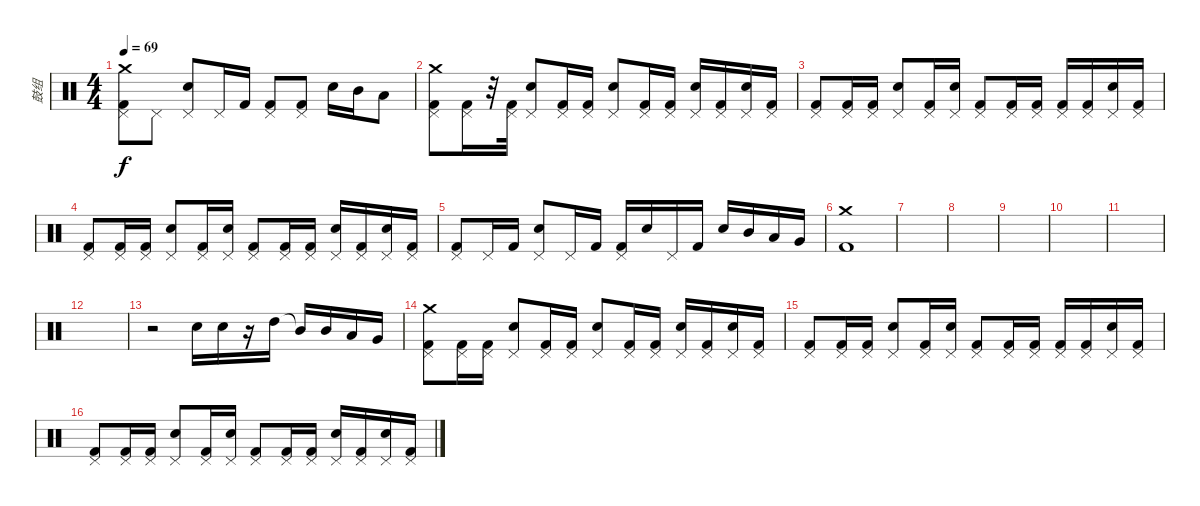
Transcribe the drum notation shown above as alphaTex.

\track ("鼓组" "鼓组") {instrument percussion}
\staff {score}
\articulation defaults
\ts (4 4)
\tempo 69
\clef neutral
\ks c
("Crash medium (hit)" "Kick (hit) 2" "Pedal Hi-Hat (hit)").8{dy f} "Pedal Hi-Hat (hit)".8 ("Snare (hit) 2" "Pedal Hi-Hat (hit)").8 "Pedal Hi-Hat (hit)".16 "Kick (hit) 2".16 ("Kick (hit) 2" "Pedal Hi-Hat (hit)").8 ("Kick (hit) 2" "Pedal Hi-Hat (hit)").8 "Snare (hit) 2".16 "Mid Tom (hit)".16 "Low Tom (hit)".8 |
("Crash medium (hit)" "Kick (hit) 2" "Pedal Hi-Hat (hit)").8 ("Kick (hit) 2" "Pedal Hi-Hat (hit)").16 r.32 ("Kick (hit) 2" "Pedal Hi-Hat (hit)").32 ("Snare (hit) 2" "Pedal Hi-Hat (hit)").8 ("Kick (hit) 2" "Pedal Hi-Hat (hit)").16 ("Kick (hit) 2" "Pedal Hi-Hat (hit)").16 ("Snare (hit) 2" "Pedal Hi-Hat (hit)").8 ("Kick (hit) 2" "Pedal Hi-Hat (hit)").16 ("Kick (hit) 2" "Pedal Hi-Hat (hit)").16 ("Snare (hit) 2" "Pedal Hi-Hat (hit)").16 ("Kick (hit) 2" "Pedal Hi-Hat (hit)").16 ("Snare (hit) 2" "Pedal Hi-Hat (hit)").16 ("Kick (hit) 2" "Pedal Hi-Hat (hit)").16 |
("Kick (hit) 2" "Pedal Hi-Hat (hit)").8 ("Kick (hit) 2" "Pedal Hi-Hat (hit)").16 ("Kick (hit) 2" "Pedal Hi-Hat (hit)").16 ("Snare (hit) 2" "Pedal Hi-Hat (hit)").8 ("Kick (hit) 2" "Pedal Hi-Hat (hit)").16 ("Snare (hit) 2" "Pedal Hi-Hat (hit)").16 ("Kick (hit) 2" "Pedal Hi-Hat (hit)").8 ("Kick (hit) 2" "Pedal Hi-Hat (hit)").16 ("Kick (hit) 2" "Pedal Hi-Hat (hit)").16 ("Kick (hit) 2" "Pedal Hi-Hat (hit)").16 ("Kick (hit) 2" "Pedal Hi-Hat (hit)").16 ("Snare (hit) 2" "Pedal Hi-Hat (hit)").16 ("Kick (hit) 2" "Pedal Hi-Hat (hit)").16 |
("Kick (hit) 2" "Pedal Hi-Hat (hit)").8 ("Kick (hit) 2" "Pedal Hi-Hat (hit)").16 ("Kick (hit) 2" "Pedal Hi-Hat (hit)").16 ("Snare (hit) 2" "Pedal Hi-Hat (hit)").8 ("Kick (hit) 2" "Pedal Hi-Hat (hit)").16 ("Snare (hit) 2" "Pedal Hi-Hat (hit)").16 ("Kick (hit) 2" "Pedal Hi-Hat (hit)").8 ("Kick (hit) 2" "Pedal Hi-Hat (hit)").16 ("Kick (hit) 2" "Pedal Hi-Hat (hit)").16 ("Snare (hit) 2" "Pedal Hi-Hat (hit)").16 ("Kick (hit) 2" "Pedal Hi-Hat (hit)").16 ("Snare (hit) 2" "Pedal Hi-Hat (hit)").16 ("Kick (hit) 2" "Pedal Hi-Hat (hit)").16 |
("Kick (hit) 2" "Pedal Hi-Hat (hit)").8 "Pedal Hi-Hat (hit)".16 "Kick (hit) 2".16 ("Snare (hit) 2" "Pedal Hi-Hat (hit)").8 "Pedal Hi-Hat (hit)".16 "Kick (hit) 2".16 ("Kick (hit) 2" "Pedal Hi-Hat (hit)").16 "Snare (hit) 2".16 "Pedal Hi-Hat (hit)".16 "Kick (hit) 2".16 "Snare (hit) 2".16 "Mid Tom (hit)".16 "Low Tom (hit)".16 "Very Low Tom (hit)".16 |
("Crash medium (hit)" "Kick (hit) 2").1 |
|
|
|
|
|
|
r.2 "Snare (hit) 2".16 "Snare (hit) 2".16 r.16 "High Tom (hit)".16 "Mid Tom (hit)"{t}.16 "Mid Tom (hit)".16 "Low Tom (hit)".16 "Very Low Tom (hit)".16 |
("Crash medium (hit)" "Kick (hit) 2" "Pedal Hi-Hat (hit)").8 ("Kick (hit) 2" "Pedal Hi-Hat (hit)").16 ("Kick (hit) 2" "Pedal Hi-Hat (hit)").16 ("Snare (hit) 2" "Pedal Hi-Hat (hit)").8 ("Kick (hit) 2" "Pedal Hi-Hat (hit)").16 ("Kick (hit) 2" "Pedal Hi-Hat (hit)").16 ("Snare (hit) 2" "Pedal Hi-Hat (hit)").8 ("Kick (hit) 2" "Pedal Hi-Hat (hit)").16 ("Kick (hit) 2" "Pedal Hi-Hat (hit)").16 ("Snare (hit) 2" "Pedal Hi-Hat (hit)").16 ("Kick (hit) 2" "Pedal Hi-Hat (hit)").16 ("Snare (hit) 2" "Pedal Hi-Hat (hit)").16 ("Kick (hit) 2" "Pedal Hi-Hat (hit)").16 |
("Kick (hit) 2" "Pedal Hi-Hat (hit)").8 ("Kick (hit) 2" "Pedal Hi-Hat (hit)").16 ("Kick (hit) 2" "Pedal Hi-Hat (hit)").16 ("Snare (hit) 2" "Pedal Hi-Hat (hit)").8 ("Kick (hit) 2" "Pedal Hi-Hat (hit)").16 ("Snare (hit) 2" "Pedal Hi-Hat (hit)").16 ("Kick (hit) 2" "Pedal Hi-Hat (hit)").8 ("Kick (hit) 2" "Pedal Hi-Hat (hit)").16 ("Kick (hit) 2" "Pedal Hi-Hat (hit)").16 ("Kick (hit) 2" "Pedal Hi-Hat (hit)").16 ("Kick (hit) 2" "Pedal Hi-Hat (hit)").16 ("Snare (hit) 2" "Pedal Hi-Hat (hit)").16 ("Kick (hit) 2" "Pedal Hi-Hat (hit)").16 |
("Kick (hit) 2" "Pedal Hi-Hat (hit)").8 ("Kick (hit) 2" "Pedal Hi-Hat (hit)").16 ("Kick (hit) 2" "Pedal Hi-Hat (hit)").16 ("Snare (hit) 2" "Pedal Hi-Hat (hit)").8 ("Kick (hit) 2" "Pedal Hi-Hat (hit)").16 ("Snare (hit) 2" "Pedal Hi-Hat (hit)").16 ("Kick (hit) 2" "Pedal Hi-Hat (hit)").8 ("Kick (hit) 2" "Pedal Hi-Hat (hit)").16 ("Kick (hit) 2" "Pedal Hi-Hat (hit)").16 ("Snare (hit) 2" "Pedal Hi-Hat (hit)").16 ("Kick (hit) 2" "Pedal Hi-Hat (hit)").16 ("Snare (hit) 2" "Pedal Hi-Hat (hit)").16 ("Kick (hit) 2" "Pedal Hi-Hat (hit)").16
